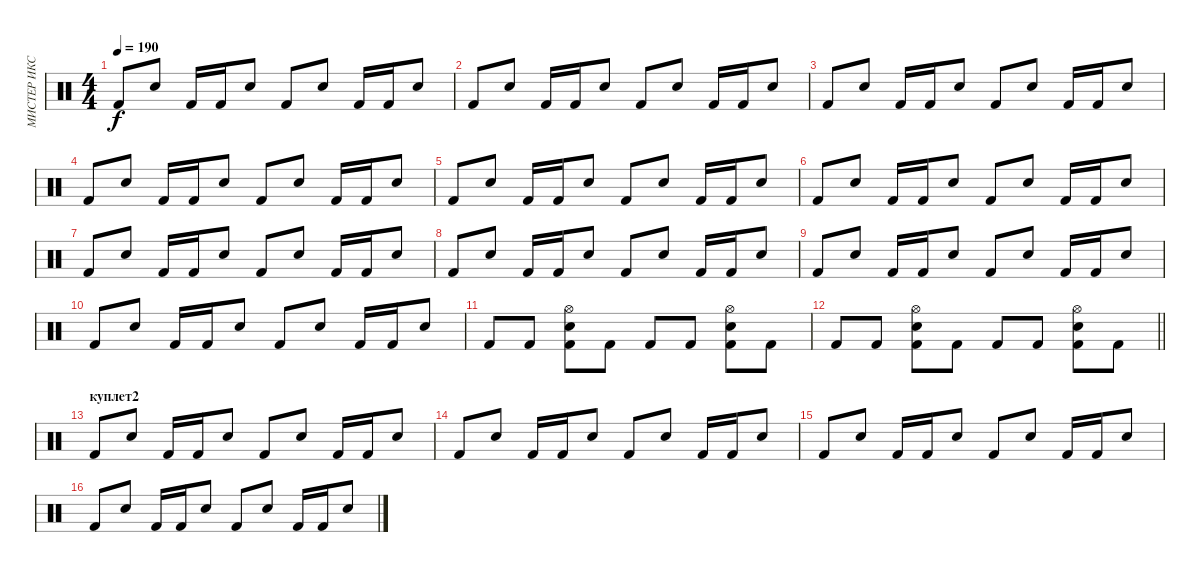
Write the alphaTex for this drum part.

\track ("МИСТЕР ИКС" "МИСТЕР ИКС") {instrument percussion}
\staff {score}
\articulation defaults
\ts (4 4)
\tempo 190
\clef neutral
\ks c "Kick (hit) 2".8{dy f} "Electric Snare (hit)".8 "Kick (hit) 2".16 "Kick (hit) 2".16 "Electric Snare (hit)".8 "Kick (hit) 2".8 "Electric Snare (hit)".8 "Kick (hit) 2".16 "Kick (hit) 2".16 "Electric Snare (hit)".8
|
"Kick (hit) 2".8 "Electric Snare (hit)".8 "Kick (hit) 2".16 "Kick (hit) 2".16 "Electric Snare (hit)".8 "Kick (hit) 2".8 "Electric Snare (hit)".8 "Kick (hit) 2".16 "Kick (hit) 2".16 "Electric Snare (hit)".8 |
"Kick (hit) 2".8 "Electric Snare (hit)".8 "Kick (hit) 2".16 "Kick (hit) 2".16 "Electric Snare (hit)".8 "Kick (hit) 2".8 "Electric Snare (hit)".8 "Kick (hit) 2".16 "Kick (hit) 2".16 "Electric Snare (hit)".8 |
"Kick (hit) 2".8 "Electric Snare (hit)".8 "Kick (hit) 2".16 "Kick (hit) 2".16 "Electric Snare (hit)".8 "Kick (hit) 2".8 "Electric Snare (hit)".8 "Kick (hit) 2".16 "Kick (hit) 2".16 "Electric Snare (hit)".8 |
"Kick (hit) 2".8 "Electric Snare (hit)".8 "Kick (hit) 2".16 "Kick (hit) 2".16 "Electric Snare (hit)".8 "Kick (hit) 2".8 "Electric Snare (hit)".8 "Kick (hit) 2".16 "Kick (hit) 2".16 "Electric Snare (hit)".8 |
"Kick (hit) 2".8 "Electric Snare (hit)".8 "Kick (hit) 2".16 "Kick (hit) 2".16 "Electric Snare (hit)".8 "Kick (hit) 2".8 "Electric Snare (hit)".8 "Kick (hit) 2".16 "Kick (hit) 2".16 "Electric Snare (hit)".8 |
"Kick (hit) 2".8 "Electric Snare (hit)".8 "Kick (hit) 2".16 "Kick (hit) 2".16 "Electric Snare (hit)".8 "Kick (hit) 2".8 "Electric Snare (hit)".8 "Kick (hit) 2".16 "Kick (hit) 2".16 "Electric Snare (hit)".8 |
"Kick (hit) 2".8 "Electric Snare (hit)".8 "Kick (hit) 2".16 "Kick (hit) 2".16 "Electric Snare (hit)".8 "Kick (hit) 2".8 "Electric Snare (hit)".8 "Kick (hit) 2".16 "Kick (hit) 2".16 "Electric Snare (hit)".8 |
"Kick (hit) 2".8 "Electric Snare (hit)".8 "Kick (hit) 2".16 "Kick (hit) 2".16 "Electric Snare (hit)".8 "Kick (hit) 2".8 "Electric Snare (hit)".8 "Kick (hit) 2".16 "Kick (hit) 2".16 "Electric Snare (hit)".8 |
"Kick (hit) 2".8 "Electric Snare (hit)".8 "Kick (hit) 2".16 "Kick (hit) 2".16 "Electric Snare (hit)".8 "Kick (hit) 2".8 "Electric Snare (hit)".8 "Kick (hit) 2".16 "Kick (hit) 2".16 "Electric Snare (hit)".8 |
"Kick (hit) 2".8 "Kick (hit) 2".8 ("Kick (hit) 2" "Electric Snare (hit)" "Hi-Hat (open)").8 "Kick (hit) 2".8 "Kick (hit) 2".8 "Kick (hit) 2".8 ("Kick (hit) 2" "Electric Snare (hit)" "Hi-Hat (open)").8 "Kick (hit) 2".8 |
\barLineRight lightlight "Kick (hit) 2".8 "Kick (hit) 2".8
("Kick (hit) 2" "Electric Snare (hit)" "Hi-Hat (open)").8 "Kick (hit) 2".8 "Kick (hit) 2".8 "Kick (hit) 2".8 ("Kick (hit) 2" "Electric Snare (hit)" "Hi-Hat (open)").8 "Kick (hit) 2".8 |
\section ("" "куплет2")
"Kick (hit) 2".8 "Electric Snare (hit)".8 "Kick (hit) 2".16 "Kick (hit) 2".16 "Electric Snare (hit)".8 "Kick (hit) 2".8 "Electric Snare (hit)".8 "Kick (hit) 2".16 "Kick (hit) 2".16 "Electric Snare (hit)".8 |
"Kick (hit) 2".8 "Electric Snare (hit)".8 "Kick (hit) 2".16 "Kick (hit) 2".16 "Electric Snare (hit)".8 "Kick (hit) 2".8 "Electric Snare (hit)".8 "Kick (hit) 2".16 "Kick (hit) 2".16 "Electric Snare (hit)".8 |
"Kick (hit) 2".8 "Electric Snare (hit)".8 "Kick (hit) 2".16 "Kick (hit) 2".16 "Electric Snare (hit)".8 "Kick (hit) 2".8 "Electric Snare (hit)".8 "Kick (hit) 2".16 "Kick (hit) 2".16 "Electric Snare (hit)".8 |
"Kick (hit) 2".8 "Electric Snare (hit)".8 "Kick (hit) 2".16 "Kick (hit) 2".16 "Electric Snare (hit)".8 "Kick (hit) 2".8 "Electric Snare (hit)".8 "Kick (hit) 2".16 "Kick (hit) 2".16 "Electric Snare (hit)".8
